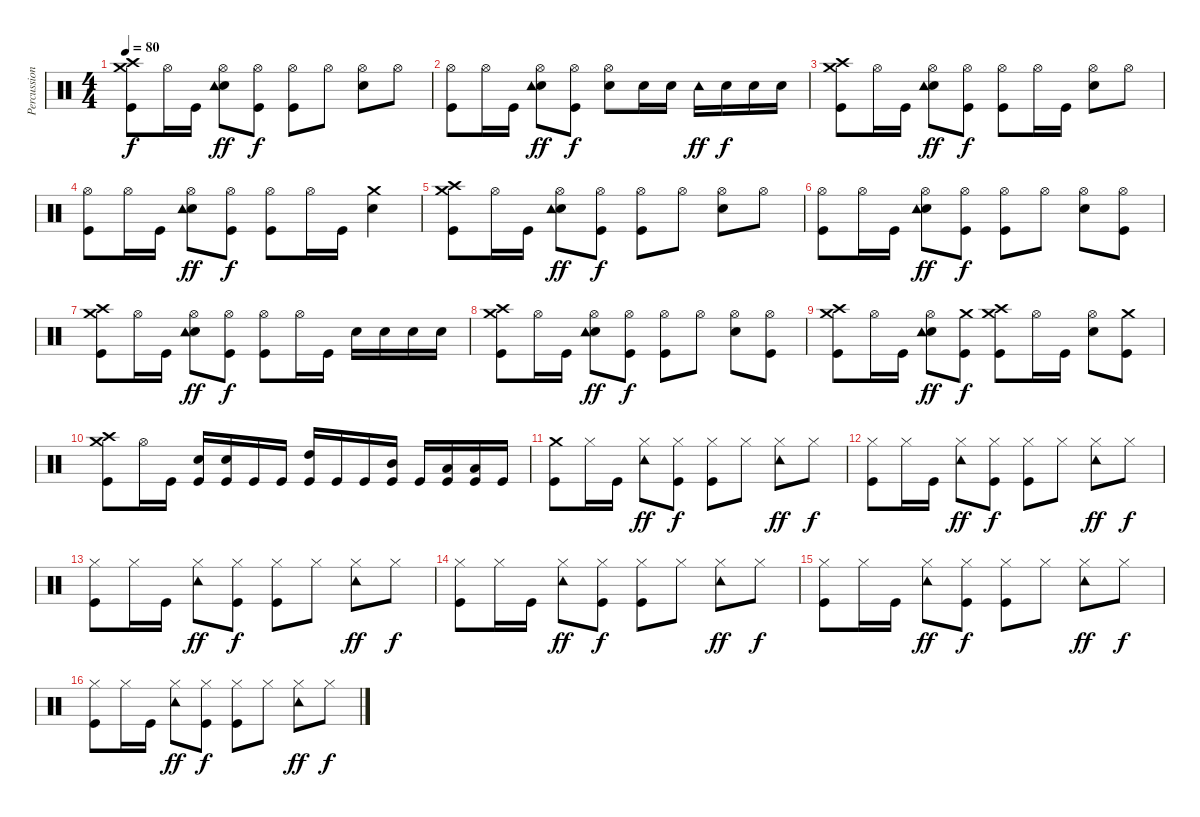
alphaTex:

\track ("Percussion" "Percussion") {instrument percussion}
\staff {score}
\articulation defaults
\ts (4 4)
\tempo 80
\clef neutral
\ks c
("Crash high (hit)" "Crash medium (hit)" "Kick (hit)").8{dy f} "Hi-Hat (open)".16 "Kick (hit)".16 ("Electric Snare (hit)" "Hi-Hat (open)" "Tambourine (hit)").8{dy ff} ("Hi-Hat (open)" "Kick (hit)").8{dy f} ("Hi-Hat (open)" "Kick (hit)").8 "Hi-Hat (open)".8 ("Electric Snare (hit)" "Hi-Hat (open)").8 "Hi-Hat (open)".8 |
("Hi-Hat (open)" "Kick (hit)").8 "Hi-Hat (open)".16 "Kick (hit)".16 ("Electric Snare (hit)" "Hi-Hat (open)" "Tambourine (hit)").8{dy ff} ("Hi-Hat (open)" "Kick (hit)").8{dy f} ("Electric Snare (hit)" "Hi-Hat (open)").8 "Electric Snare (hit)".16 "Electric Snare (hit)".16 "Tambourine (hit)".16{dy ff} "Electric Snare (hit)".16{dy f} "Electric Snare (hit)".16 "Electric Snare (hit)".16 |
("Crash high (hit)" "Crash medium (hit)" "Kick (hit)").8 "Hi-Hat (open)".16 "Kick (hit)".16 ("Electric Snare (hit)" "Hi-Hat (open)" "Tambourine (hit)").8{dy ff} ("Hi-Hat (open)" "Kick (hit)").8{dy f} ("Hi-Hat (open)" "Kick (hit)").8 "Hi-Hat (open)".16 "Kick (hit)".16 ("Electric Snare (hit)" "Hi-Hat (open)").8 "Hi-Hat (open)".8 |
("Hi-Hat (open)" "Kick (hit)").8 "Hi-Hat (open)".16 "Kick (hit)".16 ("Electric Snare (hit)" "Hi-Hat (open)" "Tambourine (hit)").8{dy ff} ("Hi-Hat (open)" "Kick (hit)").8{dy f} ("Hi-Hat (open)" "Kick (hit)").8 "Hi-Hat (open)".16 "Kick (hit)".16 ("Electric Snare (hit)" "Crash medium (hit)").4 |
("Crash high (hit)" "Crash medium (hit)" "Kick (hit)").8 "Hi-Hat (open)".16 "Kick (hit)".16 ("Electric Snare (hit)" "Hi-Hat (open)" "Tambourine (hit)").8{dy ff} ("Hi-Hat (open)" "Kick (hit)").8{dy f} ("Hi-Hat (open)" "Kick (hit)").8 "Hi-Hat (open)".8 ("Electric Snare (hit)" "Hi-Hat (open)").8 "Hi-Hat (open)".8 |
("Hi-Hat (open)" "Kick (hit)").8 "Hi-Hat (open)".16 "Kick (hit)".16 ("Electric Snare (hit)" "Hi-Hat (open)" "Tambourine (hit)").8{dy ff} ("Hi-Hat (open)" "Kick (hit)").8{dy f} ("Hi-Hat (open)" "Kick (hit)").8 "Hi-Hat (open)".8 ("Electric Snare (hit)" "Hi-Hat (open)").8 ("Hi-Hat (open)" "Kick (hit)").8 |
("Crash high (hit)" "Crash medium (hit)" "Kick (hit)").8 "Hi-Hat (open)".16 "Kick (hit)".16 ("Electric Snare (hit)" "Hi-Hat (open)" "Tambourine (hit)").8{dy ff} ("Hi-Hat (open)" "Kick (hit)").8{dy f} ("Hi-Hat (open)" "Kick (hit)").8 "Hi-Hat (open)".16 "Kick (hit)".16 "Electric Snare (hit)".16 "Electric Snare (hit)".16 "Electric Snare (hit)".16 "Electric Snare (hit)".16 |
("Crash high (hit)" "Crash medium (hit)" "Kick (hit)").8 "Hi-Hat (open)".16 "Kick (hit)".16 ("Electric Snare (hit)" "Hi-Hat (open)" "Tambourine (hit)").8{dy ff} ("Hi-Hat (open)" "Kick (hit)").8{dy f} ("Hi-Hat (open)" "Kick (hit)").8 "Hi-Hat (open)".8 ("Electric Snare (hit)" "Hi-Hat (open)").8 ("Hi-Hat (open)" "Kick (hit)").8 |
("Crash high (hit)" "Crash medium (hit)" "Kick (hit)").8 "Hi-Hat (open)".16 "Kick (hit)".16 ("Electric Snare (hit)" "Hi-Hat (open)" "Tambourine (hit)").8{dy ff} ("Crash medium (hit)" "Kick (hit)").8{dy f} ("Crash high (hit)" "Crash medium (hit)" "Kick (hit)").8 "Hi-Hat (open)".16 "Kick (hit)".16 ("Electric Snare (hit)" "Hi-Hat (open)").8 ("Crash medium (hit)" "Kick (hit)").8 |
("Crash high (hit)" "Crash medium (hit)" "Kick (hit)").8 "Hi-Hat (open)".16 "Kick (hit)".16 ("Electric Snare (hit)" "Kick (hit)").16 ("Electric Snare (hit)" "Kick (hit)").16 "Kick (hit)".16 "Kick (hit)".16 ("High Tom (hit)" "Kick (hit)").16 "Kick (hit)".16 "Kick (hit)".16 ("Mid Tom (hit)" "Kick (hit)").16 "Kick (hit)".16 ("Low Tom (hit)" "Kick (hit)").16 ("Low Tom (hit)" "Kick (hit)").16 "Kick (hit)".16 |
("Crash medium (hit)" "Kick (hit)").8 "Hi-Hat (closed)".16 "Kick (hit)".16 ("Tambourine (hit)" "Hi-Hat (closed)").8{dy ff} ("Hi-Hat (closed)" "Kick (hit)").8{dy f} ("Hi-Hat (closed)" "Kick (hit)").8 "Hi-Hat (closed)".8 ("Tambourine (hit)" "Hi-Hat (closed)").8{dy ff} "Hi-Hat (closed)".8{dy f} |
("Hi-Hat (closed)" "Kick (hit)").8 "Hi-Hat (closed)".16 "Kick (hit)".16 ("Tambourine (hit)" "Hi-Hat (closed)").8{dy ff} ("Hi-Hat (closed)" "Kick (hit)").8{dy f} ("Hi-Hat (closed)" "Kick (hit)").8 "Hi-Hat (closed)".8 ("Tambourine (hit)" "Hi-Hat (closed)").8{dy ff} "Hi-Hat (closed)".8{dy f} |
("Hi-Hat (closed)" "Kick (hit)").8 "Hi-Hat (closed)".16 "Kick (hit)".16 ("Tambourine (hit)" "Hi-Hat (closed)").8{dy ff} ("Hi-Hat (closed)" "Kick (hit)").8{dy f} ("Hi-Hat (closed)" "Kick (hit)").8 "Hi-Hat (closed)".8 ("Tambourine (hit)" "Hi-Hat (closed)").8{dy ff} "Hi-Hat (closed)".8{dy f} |
("Hi-Hat (closed)" "Kick (hit)").8 "Hi-Hat (closed)".16 "Kick (hit)".16 ("Tambourine (hit)" "Hi-Hat (closed)").8{dy ff} ("Hi-Hat (closed)" "Kick (hit)").8{dy f} ("Hi-Hat (closed)" "Kick (hit)").8 "Hi-Hat (closed)".8 ("Tambourine (hit)" "Hi-Hat (closed)").8{dy ff} "Hi-Hat (closed)".8{dy f} |
("Hi-Hat (closed)" "Kick (hit)").8 "Hi-Hat (closed)".16 "Kick (hit)".16 ("Tambourine (hit)" "Hi-Hat (closed)").8{dy ff} ("Hi-Hat (closed)" "Kick (hit)").8{dy f} ("Hi-Hat (closed)" "Kick (hit)").8 "Hi-Hat (closed)".8 ("Tambourine (hit)" "Hi-Hat (closed)").8{dy ff} "Hi-Hat (closed)".8{dy f} |
("Hi-Hat (closed)" "Kick (hit)").8 "Hi-Hat (closed)".16 "Kick (hit)".16 ("Tambourine (hit)" "Hi-Hat (closed)").8{dy ff} ("Hi-Hat (closed)" "Kick (hit)").8{dy f} ("Hi-Hat (closed)" "Kick (hit)").8 "Hi-Hat (closed)".8 ("Tambourine (hit)" "Hi-Hat (closed)").8{dy ff} "Hi-Hat (closed)".8{dy f}
